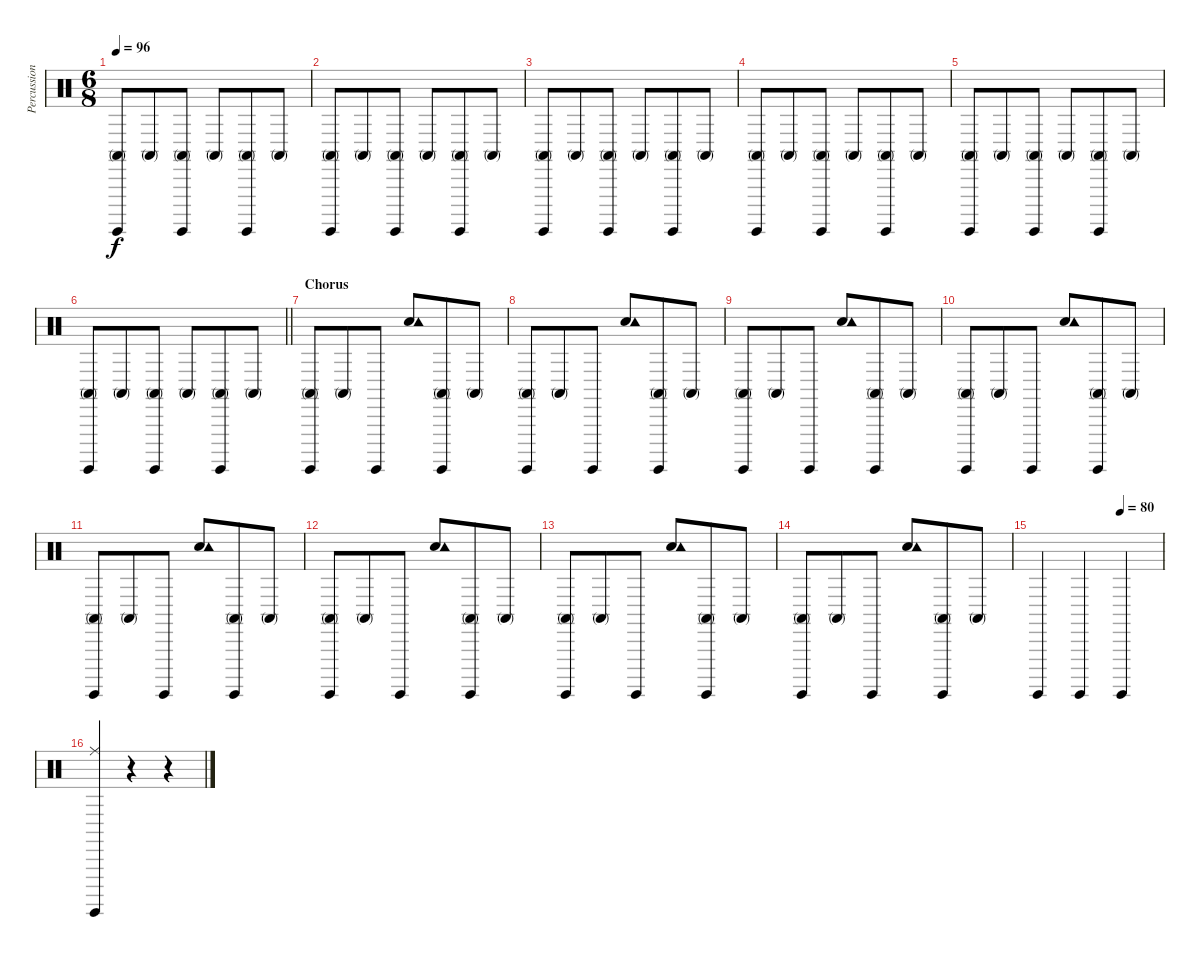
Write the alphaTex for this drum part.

\track ("Percussion" "Percussion") {instrument percussion}
\staff {score}
\articulation defaults
\ts (6 8)
\tempo 96
\clef neutral
\ks c
("Surdo (hit)" "Conga high (mute)").8{dy f} "Conga high (mute)".8 ("Surdo (hit)" "Conga high (mute)").8 "Conga high (mute)".8 ("Surdo (hit)" "Conga high (mute)").8 "Conga high (mute)".8 |
("Surdo (hit)" "Conga high (mute)").8 "Conga high (mute)".8 ("Surdo (hit)" "Conga high (mute)").8 "Conga high (mute)".8 ("Surdo (hit)" "Conga high (mute)").8 "Conga high (mute)".8 |
("Surdo (hit)" "Conga high (mute)").8 "Conga high (mute)".8 ("Surdo (hit)" "Conga high (mute)").8 "Conga high (mute)".8 ("Surdo (hit)" "Conga high (mute)").8 "Conga high (mute)".8 |
("Surdo (hit)" "Conga high (mute)").8 "Conga high (mute)".8 ("Surdo (hit)" "Conga high (mute)").8 "Conga high (mute)".8 ("Surdo (hit)" "Conga high (mute)").8 "Conga high (mute)".8 |
("Surdo (hit)" "Conga high (mute)").8 "Conga high (mute)".8 ("Surdo (hit)" "Conga high (mute)").8 "Conga high (mute)".8 ("Surdo (hit)" "Conga high (mute)").8 "Conga high (mute)".8 |
\barLineRight lightlight
("Surdo (hit)" "Conga high (mute)").8 "Conga high (mute)".8 ("Surdo (hit)" "Conga high (mute)").8 "Conga high (mute)".8 ("Surdo (hit)" "Conga high (mute)").8 "Conga high (mute)".8 |
\section ("" "Chorus")
("Surdo (hit)" "Conga high (mute)").8 "Conga high (mute)".8 "Surdo (hit)".8 ("Snare (hit) 2" "Tambourine (hit)").8 ("Surdo (hit)" "Conga high (mute)").8 "Conga high (mute)".8 |
("Surdo (hit)" "Conga high (mute)").8 "Conga high (mute)".8 "Surdo (hit)".8 ("Snare (hit) 2" "Tambourine (hit)").8 ("Surdo (hit)" "Conga high (mute)").8 "Conga high (mute)".8 |
("Surdo (hit)" "Conga high (mute)").8 "Conga high (mute)".8 "Surdo (hit)".8 ("Snare (hit) 2" "Tambourine (hit)").8 ("Surdo (hit)" "Conga high (mute)").8 "Conga high (mute)".8 |
("Surdo (hit)" "Conga high (mute)").8 "Conga high (mute)".8 "Surdo (hit)".8 ("Snare (hit) 2" "Tambourine (hit)").8 ("Surdo (hit)" "Conga high (mute)").8 "Conga high (mute)".8 |
("Surdo (hit)" "Conga high (mute)").8 "Conga high (mute)".8 "Surdo (hit)".8 ("Snare (hit) 2" "Tambourine (hit)").8 ("Surdo (hit)" "Conga high (mute)").8 "Conga high (mute)".8 |
("Surdo (hit)" "Conga high (mute)").8 "Conga high (mute)".8 "Surdo (hit)".8 ("Snare (hit) 2" "Tambourine (hit)").8 ("Surdo (hit)" "Conga high (mute)").8 "Conga high (mute)".8 |
("Surdo (hit)" "Conga high (mute)").8 "Conga high (mute)".8 "Surdo (hit)".8 ("Snare (hit) 2" "Tambourine (hit)").8 ("Surdo (hit)" "Conga high (mute)").8 "Conga high (mute)".8 |
("Surdo (hit)" "Conga high (mute)").8 "Conga high (mute)".8 "Surdo (hit)".8 ("Snare (hit) 2" "Tambourine (hit)").8 ("Surdo (hit)" "Conga high (mute)").8 "Conga high (mute)".8 |
\tempo (80 0.6666666666666666)
"Surdo (hit)".4 "Surdo (hit)".4 "Surdo (hit)".4 |
("Surdo (hit)" "Ride (middle)").4 r.4 r.4
